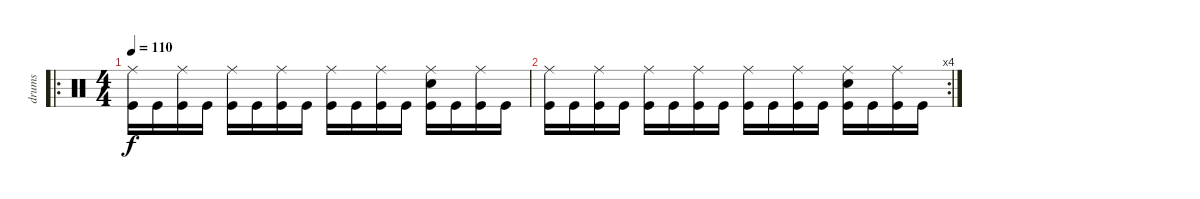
\track ("drums" "drums") {instrument percussion}
\staff {score}
\articulation defaults
\ro
\ts (4 4)
\tempo 110
\clef neutral
\ks c
("Ride (middle)" "Kick (hit)").16{dy f} "Kick (hit)".16 ("Ride (middle)" "Kick (hit)").16 "Kick (hit)".16 ("Ride (middle)" "Kick (hit)").16 "Kick (hit)".16 ("Ride (middle)" "Kick (hit)").16 "Kick (hit)".16 ("Ride (middle)" "Kick (hit)").16 "Kick (hit)".16 ("Ride (middle)" "Kick (hit)").16 "Kick (hit)".16 ("Snare (hit) 2" "Ride (middle)" "Kick (hit)").16 "Kick (hit)".16 ("Ride (middle)" "Kick (hit)").16 "Kick (hit)".16 |
\rc 4
("Ride (middle)" "Kick (hit)").16 "Kick (hit)".16 ("Ride (middle)" "Kick (hit)").16 "Kick (hit)".16 ("Ride (middle)" "Kick (hit)").16 "Kick (hit)".16 ("Ride (middle)" "Kick (hit)").16 "Kick (hit)".16 ("Ride (middle)" "Kick (hit)").16 "Kick (hit)".16 ("Ride (middle)" "Kick (hit)").16 "Kick (hit)".16 ("Snare (hit) 2" "Ride (middle)" "Kick (hit)").16 "Kick (hit)".16 ("Ride (middle)" "Kick (hit)").16 "Kick (hit)".16
